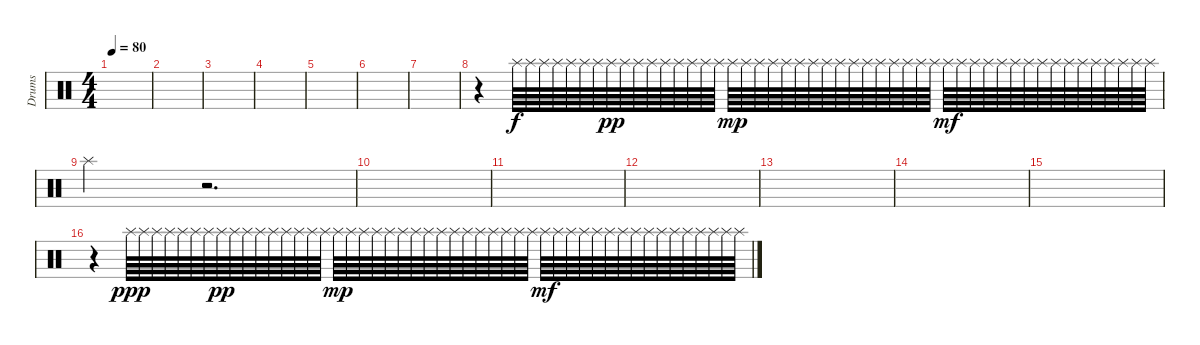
\track ("Drums" "Drums") {instrument percussion}
\staff {score}
\articulation defaults
\ts (4 4)
\tempo 80
\clef neutral
\ks c
|
|
|
|
|
|
|
r.4 "Splash (hit)".64 "Splash (hit)".64 "Splash (hit)".64 "Splash (hit)".64 "Splash (hit)".64 "Splash (hit)".64 "Splash (hit)".64 "Splash (hit)".64{dy pp} "Splash (hit)".64 "Splash (hit)".64 "Splash (hit)".64 "Splash (hit)".64 "Splash (hit)".64 "Splash (hit)".64 "Splash (hit)".64 "Splash (hit)".64 "Splash (hit)".64{dy mp} "Splash (hit)".64 "Splash (hit)".64 "Splash (hit)".64 "Splash (hit)".64 "Splash (hit)".64 "Splash (hit)".64 "Splash (hit)".64 "Splash (hit)".64 "Splash (hit)".64 "Splash (hit)".64 "Splash (hit)".64 "Splash (hit)".64 "Splash (hit)".64 "Splash (hit)".64 "Splash (hit)".64 "Splash (hit)".64{dy mf} "Splash (hit)".64 "Splash (hit)".64 "Splash (hit)".64 "Splash (hit)".64 "Splash (hit)".64 "Splash (hit)".64 "Splash (hit)".64 "Splash (hit)".64 "Splash (hit)".64 "Splash (hit)".64 "Splash (hit)".64 "Splash (hit)".64 "Splash (hit)".64 "Splash (hit)".64 "Splash (hit)".64 |
"Splash (hit)".4 r.2{d} |
|
|
|
|
|
|
r.4 "Splash (hit)".64{dy ppp} "Splash (hit)".64 "Splash (hit)".64 "Splash (hit)".64 "Splash (hit)".64 "Splash (hit)".64 "Splash (hit)".64 "Splash (hit)".64{dy pp} "Splash (hit)".64 "Splash (hit)".64 "Splash (hit)".64 "Splash (hit)".64 "Splash (hit)".64 "Splash (hit)".64 "Splash (hit)".64 "Splash (hit)".64 "Splash (hit)".64{dy mp} "Splash (hit)".64 "Splash (hit)".64 "Splash (hit)".64 "Splash (hit)".64 "Splash (hit)".64 "Splash (hit)".64 "Splash (hit)".64 "Splash (hit)".64 "Splash (hit)".64 "Splash (hit)".64 "Splash (hit)".64 "Splash (hit)".64 "Splash (hit)".64 "Splash (hit)".64 "Splash (hit)".64 "Splash (hit)".64{dy mf} "Splash (hit)".64 "Splash (hit)".64 "Splash (hit)".64 "Splash (hit)".64 "Splash (hit)".64 "Splash (hit)".64 "Splash (hit)".64 "Splash (hit)".64 "Splash (hit)".64 "Splash (hit)".64 "Splash (hit)".64 "Splash (hit)".64 "Splash (hit)".64 "Splash (hit)".64 "Splash (hit)".64
